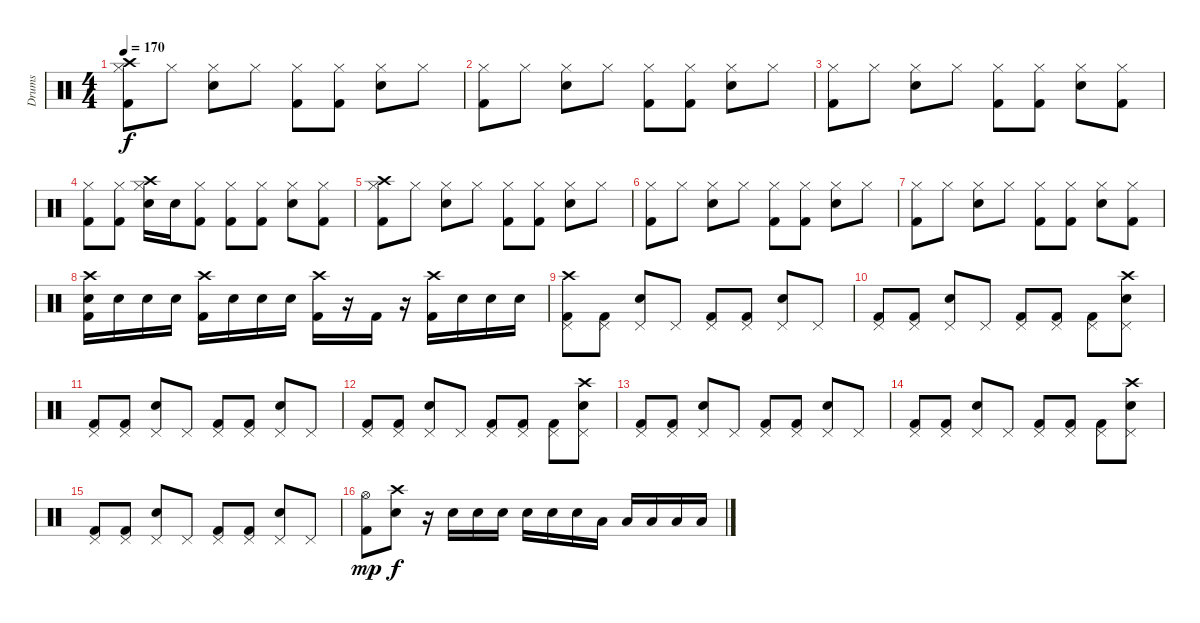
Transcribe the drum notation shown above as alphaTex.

\track ("Drums" "Drums") {instrument percussion}
\staff {score}
\articulation defaults
\ts (4 4)
\tempo 170
\clef neutral
\ks c
("Crash high (hit)" "Hi-Hat (closed)" "Kick (hit) 2").8{dy f} "Hi-Hat (closed)".8 ("Hi-Hat (closed)" "Electric Snare (hit)").8 "Hi-Hat (closed)".8 ("Hi-Hat (closed)" "Kick (hit) 2").8 ("Hi-Hat (closed)" "Kick (hit) 2").8 ("Hi-Hat (closed)" "Electric Snare (hit)").8 "Hi-Hat (closed)".8 |
("Hi-Hat (closed)" "Kick (hit) 2").8 "Hi-Hat (closed)".8 ("Hi-Hat (closed)" "Electric Snare (hit)").8 "Hi-Hat (closed)".8 ("Hi-Hat (closed)" "Kick (hit) 2").8 ("Hi-Hat (closed)" "Kick (hit) 2").8 ("Hi-Hat (closed)" "Electric Snare (hit)").8 "Hi-Hat (closed)".8 |
("Hi-Hat (closed)" "Kick (hit) 2").8 "Hi-Hat (closed)".8 ("Hi-Hat (closed)" "Electric Snare (hit)").8 "Hi-Hat (closed)".8 ("Hi-Hat (closed)" "Kick (hit) 2").8 ("Hi-Hat (closed)" "Kick (hit) 2").8 ("Hi-Hat (closed)" "Electric Snare (hit)").8 ("Hi-Hat (closed)" "Kick (hit) 2").8 |
("Hi-Hat (closed)" "Kick (hit) 2").8 ("Hi-Hat (closed)" "Kick (hit) 2").8 ("Crash high (hit)" "Hi-Hat (closed)" "Electric Snare (hit)").16 "Electric Snare (hit)".16 ("Hi-Hat (closed)" "Kick (hit) 2").8 ("Hi-Hat (closed)" "Kick (hit) 2").8 ("Hi-Hat (closed)" "Kick (hit) 2").8 ("Hi-Hat (closed)" "Electric Snare (hit)").8 ("Hi-Hat (closed)" "Kick (hit) 2").8 |
("Crash high (hit)" "Hi-Hat (closed)" "Kick (hit) 2").8 "Hi-Hat (closed)".8 ("Hi-Hat (closed)" "Electric Snare (hit)").8 "Hi-Hat (closed)".8 ("Hi-Hat (closed)" "Kick (hit) 2").8 ("Hi-Hat (closed)" "Kick (hit) 2").8 ("Hi-Hat (closed)" "Electric Snare (hit)").8 "Hi-Hat (closed)".8 |
("Hi-Hat (closed)" "Kick (hit) 2").8 "Hi-Hat (closed)".8 ("Hi-Hat (closed)" "Electric Snare (hit)").8 "Hi-Hat (closed)".8 ("Hi-Hat (closed)" "Kick (hit) 2").8 ("Hi-Hat (closed)" "Kick (hit) 2").8 ("Hi-Hat (closed)" "Electric Snare (hit)").8 "Hi-Hat (closed)".8 |
("Hi-Hat (closed)" "Kick (hit) 2").8 "Hi-Hat (closed)".8 ("Hi-Hat (closed)" "Electric Snare (hit)").8 "Hi-Hat (closed)".8 ("Hi-Hat (closed)" "Kick (hit) 2").8 ("Hi-Hat (closed)" "Kick (hit) 2").8 ("Hi-Hat (closed)" "Electric Snare (hit)").8 ("Hi-Hat (closed)" "Kick (hit) 2").8 |
("Crash high (hit)" "Electric Snare (hit)" "Kick (hit) 2").16 "Electric Snare (hit)".16 "Electric Snare (hit)".16 "Electric Snare (hit)".16 ("Crash high (hit)" "Kick (hit) 2").16 "Electric Snare (hit)".16 "Electric Snare (hit)".16 "Electric Snare (hit)".16 ("Crash high (hit)" "Kick (hit) 2").16 r.16 "Kick (hit) 2".16 r.16 ("Crash high (hit)" "Kick (hit) 2").16 "Electric Snare (hit)".16 "Electric Snare (hit)".16 "Electric Snare (hit)".16 |
("Crash high (hit)" "Pedal Hi-Hat (hit)" "Kick (hit) 2").8 ("Pedal Hi-Hat (hit)" "Kick (hit) 2").8 ("Pedal Hi-Hat (hit)" "Electric Snare (hit)").8 "Pedal Hi-Hat (hit)".8 ("Pedal Hi-Hat (hit)" "Kick (hit) 2").8 ("Pedal Hi-Hat (hit)" "Kick (hit) 2").8 ("Pedal Hi-Hat (hit)" "Electric Snare (hit)").8 "Pedal Hi-Hat (hit)".8 |
("Pedal Hi-Hat (hit)" "Kick (hit) 2").8 ("Pedal Hi-Hat (hit)" "Kick (hit) 2").8 ("Pedal Hi-Hat (hit)" "Electric Snare (hit)").8 "Pedal Hi-Hat (hit)".8 ("Pedal Hi-Hat (hit)" "Kick (hit) 2").8 ("Pedal Hi-Hat (hit)" "Kick (hit) 2").8 ("Pedal Hi-Hat (hit)" "Kick (hit) 2").8 ("Crash high (hit)" "Pedal Hi-Hat (hit)" "Electric Snare (hit)").8 |
("Pedal Hi-Hat (hit)" "Kick (hit) 2").8 ("Pedal Hi-Hat (hit)" "Kick (hit) 2").8 ("Pedal Hi-Hat (hit)" "Electric Snare (hit)").8 "Pedal Hi-Hat (hit)".8 ("Pedal Hi-Hat (hit)" "Kick (hit) 2").8 ("Pedal Hi-Hat (hit)" "Kick (hit) 2").8 ("Pedal Hi-Hat (hit)" "Electric Snare (hit)").8 "Pedal Hi-Hat (hit)".8 |
("Pedal Hi-Hat (hit)" "Kick (hit) 2").8 ("Pedal Hi-Hat (hit)" "Kick (hit) 2").8 ("Pedal Hi-Hat (hit)" "Electric Snare (hit)").8 "Pedal Hi-Hat (hit)".8 ("Pedal Hi-Hat (hit)" "Kick (hit) 2").8 ("Pedal Hi-Hat (hit)" "Kick (hit) 2").8 ("Pedal Hi-Hat (hit)" "Kick (hit) 2").8 ("Crash high (hit)" "Pedal Hi-Hat (hit)" "Electric Snare (hit)").8 |
("Pedal Hi-Hat (hit)" "Kick (hit) 2").8 ("Pedal Hi-Hat (hit)" "Kick (hit) 2").8 ("Pedal Hi-Hat (hit)" "Electric Snare (hit)").8 "Pedal Hi-Hat (hit)".8 ("Pedal Hi-Hat (hit)" "Kick (hit) 2").8 ("Pedal Hi-Hat (hit)" "Kick (hit) 2").8 ("Pedal Hi-Hat (hit)" "Electric Snare (hit)").8 "Pedal Hi-Hat (hit)".8 |
("Pedal Hi-Hat (hit)" "Kick (hit) 2").8 ("Pedal Hi-Hat (hit)" "Kick (hit) 2").8 ("Pedal Hi-Hat (hit)" "Electric Snare (hit)").8 "Pedal Hi-Hat (hit)".8 ("Pedal Hi-Hat (hit)" "Kick (hit) 2").8 ("Pedal Hi-Hat (hit)" "Kick (hit) 2").8 ("Pedal Hi-Hat (hit)" "Kick (hit) 2").8 ("Crash high (hit)" "Pedal Hi-Hat (hit)" "Electric Snare (hit)").8 |
("Pedal Hi-Hat (hit)" "Kick (hit) 2").8 ("Pedal Hi-Hat (hit)" "Kick (hit) 2").8 ("Pedal Hi-Hat (hit)" "Electric Snare (hit)").8 "Pedal Hi-Hat (hit)".8 ("Pedal Hi-Hat (hit)" "Kick (hit) 2").8 ("Pedal Hi-Hat (hit)" "Kick (hit) 2").8 ("Pedal Hi-Hat (hit)" "Electric Snare (hit)").8 "Pedal Hi-Hat (hit)".8 |
("Hi-Hat (open)" "Kick (hit) 2").8{dy mp} ("Crash high (hit)" "Snare (hit) 2").8{dy f} r.16 "Snare (hit) 2".16 "Snare (hit) 2".16 "Snare (hit) 2".16 "Snare (hit) 2".16 "Snare (hit) 2".16 "Snare (hit) 2".16 "Low Floor Tom (hit)".16 "Low Floor Tom (hit)".16 "Low Floor Tom (hit)".16 "Low Floor Tom (hit)".16 "Low Floor Tom (hit)".16
